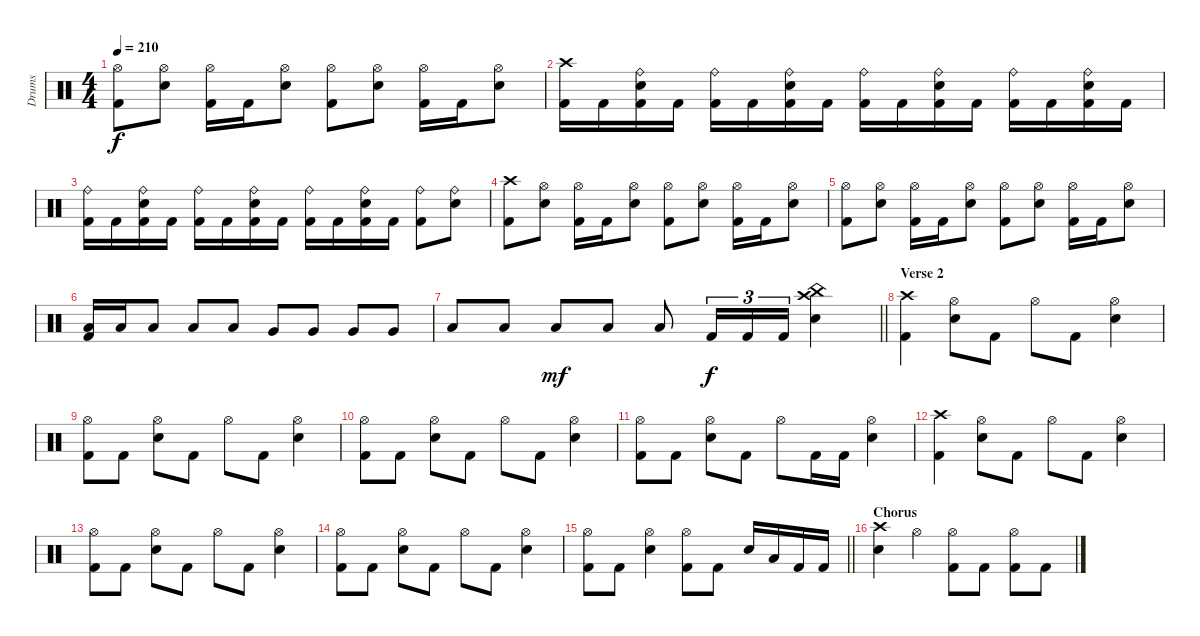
\track ("Drums" "Drums") {instrument percussion}
\staff {score}
\articulation defaults
\ts (4 4)
\tempo 210
\clef neutral
\ks c
("Hi-Hat (open)" "Kick (hit) 2").8{dy f} ("Hi-Hat (open)" "Snare (hit) 2").8 ("Hi-Hat (open)" "Kick (hit) 2").16 "Kick (hit) 2".16 ("Hi-Hat (open)" "Snare (hit) 2").8 ("Hi-Hat (open)" "Kick (hit) 2").8 ("Hi-Hat (open)" "Snare (hit) 2").8 ("Hi-Hat (open)" "Kick (hit) 2").16 "Kick (hit) 2".16 ("Hi-Hat (open)" "Snare (hit) 2").8 |
("Crash high (hit)" "Kick (hit) 2").16 "Kick (hit) 2".16 ("Ride (bell)" "Snare (hit) 2" "Kick (hit) 2").16 "Kick (hit) 2".16 ("Ride (bell)" "Kick (hit) 2").16 "Kick (hit) 2".16 ("Ride (bell)" "Snare (hit) 2" "Kick (hit) 2").16 "Kick (hit) 2".16 ("Ride (bell)" "Kick (hit) 2").16 "Kick (hit) 2".16 ("Ride (bell)" "Snare (hit) 2" "Kick (hit) 2").16 "Kick (hit) 2".16 ("Ride (bell)" "Kick (hit) 2").16 "Kick (hit) 2".16 ("Ride (bell)" "Snare (hit) 2" "Kick (hit) 2").16 "Kick (hit) 2".16 |
("Ride (bell)" "Kick (hit) 2").16 "Kick (hit) 2".16 ("Ride (bell)" "Snare (hit) 2" "Kick (hit) 2").16 "Kick (hit) 2".16 ("Ride (bell)" "Kick (hit) 2").16 "Kick (hit) 2".16 ("Ride (bell)" "Snare (hit) 2" "Kick (hit) 2").16 "Kick (hit) 2".16 ("Ride (bell)" "Kick (hit) 2").16 "Kick (hit) 2".16 ("Ride (bell)" "Snare (hit) 2" "Kick (hit) 2").16 "Kick (hit) 2".16 ("Ride (bell)" "Kick (hit) 2").8 ("Ride (bell)" "Snare (hit) 2").8 |
("Crash high (hit)" "Kick (hit) 2").8 ("Hi-Hat (open)" "Snare (hit) 2").8 ("Hi-Hat (open)" "Kick (hit) 2").16 "Kick (hit) 2".16 ("Hi-Hat (open)" "Snare (hit) 2").8 ("Hi-Hat (open)" "Kick (hit) 2").8 ("Hi-Hat (open)" "Snare (hit) 2").8 ("Hi-Hat (open)" "Kick (hit) 2").16 "Kick (hit) 2".16 ("Hi-Hat (open)" "Snare (hit) 2").8 |
("Hi-Hat (open)" "Kick (hit) 2").8 ("Hi-Hat (open)" "Snare (hit) 2").8 ("Hi-Hat (open)" "Kick (hit) 2").16 "Kick (hit) 2".16 ("Hi-Hat (open)" "Snare (hit) 2").8 ("Hi-Hat (open)" "Kick (hit) 2").8 ("Hi-Hat (open)" "Snare (hit) 2").8 ("Hi-Hat (open)" "Kick (hit) 2").16 "Kick (hit) 2".16 ("Hi-Hat (open)" "Snare (hit) 2").8 |
("Low Tom (hit)" "Kick (hit) 2").16 "Low Tom (hit)".16 "Low Tom (hit)".8 "Low Tom (hit)".8 "Low Tom (hit)".8 "Very Low Tom (hit)".8 "Very Low Tom (hit)".8 "Very Low Tom (hit)".8 "Very Low Tom (hit)".8 |
\barLineRight lightlight "Low Floor Tom (hit)".8 "Low Floor Tom (hit)".8 "Low Floor Tom (hit)".8{dy mf} "Low Floor Tom (hit)".8 "Low Floor Tom (hit)".8 "Kick (hit) 2".16{tu (3 2) dy f} "Kick (hit) 2".16{tu (3 2)} "Kick (hit) 2".16{tu (3 2)}
("China (hit)" "Crash high (hit)" "Snare (hit) 2").4 |
\section ("" "Verse 2")
("Crash high (hit)" "Kick (hit) 2").4 ("Hi-Hat (open)" "Snare (hit) 2").8 "Kick (hit) 2".8 "Hi-Hat (open)".8 "Kick (hit) 2".8 ("Hi-Hat (open)" "Snare (hit) 2").4 |
("Hi-Hat (open)" "Kick (hit) 2").8 "Kick (hit) 2".8 ("Hi-Hat (open)" "Snare (hit) 2").8 "Kick (hit) 2".8 "Hi-Hat (open)".8 "Kick (hit) 2".8 ("Hi-Hat (open)" "Snare (hit) 2").4 |
("Hi-Hat (open)" "Kick (hit) 2").8 "Kick (hit) 2".8 ("Hi-Hat (open)" "Snare (hit) 2").8 "Kick (hit) 2".8 "Hi-Hat (open)".8 "Kick (hit) 2".8 ("Hi-Hat (open)" "Snare (hit) 2").4 |
("Hi-Hat (open)" "Kick (hit) 2").8 "Kick (hit) 2".8 ("Hi-Hat (open)" "Snare (hit) 2").8 "Kick (hit) 2".8 "Hi-Hat (open)".8 "Kick (hit) 2".16 "Kick (hit) 2".16 ("Hi-Hat (open)" "Snare (hit) 2").4 |
("Crash high (hit)" "Kick (hit) 2").4 ("Hi-Hat (open)" "Snare (hit) 2").8 "Kick (hit) 2".8 "Hi-Hat (open)".8 "Kick (hit) 2".8 ("Hi-Hat (open)" "Snare (hit) 2").4 |
("Hi-Hat (open)" "Kick (hit) 2").8 "Kick (hit) 2".8 ("Hi-Hat (open)" "Snare (hit) 2").8 "Kick (hit) 2".8 "Hi-Hat (open)".8 "Kick (hit) 2".8 ("Hi-Hat (open)" "Snare (hit) 2").4 |
("Hi-Hat (open)" "Kick (hit) 2").8 "Kick (hit) 2".8 ("Hi-Hat (open)" "Snare (hit) 2").8 "Kick (hit) 2".8 "Hi-Hat (open)".8 "Kick (hit) 2".8 ("Hi-Hat (open)" "Snare (hit) 2").4 |
\barLineRight lightlight
("Hi-Hat (open)" "Kick (hit) 2").8 "Kick (hit) 2".8 ("Hi-Hat (open)" "Snare (hit) 2").4 ("Hi-Hat (open)" "Kick (hit) 2").8 "Kick (hit) 2".8 "Snare (hit) 2".16 "Low Tom (hit)".16 "Kick (hit) 2".16 "Kick (hit) 2".16 |
\section ("" "Chorus")
("Crash high (hit)" "Snare (hit) 2").4 "Hi-Hat (open)".4 ("Hi-Hat (open)" "Kick (hit) 2").8 "Kick (hit) 2".8 ("Hi-Hat (open)" "Kick (hit) 2").8 "Kick (hit) 2".8
